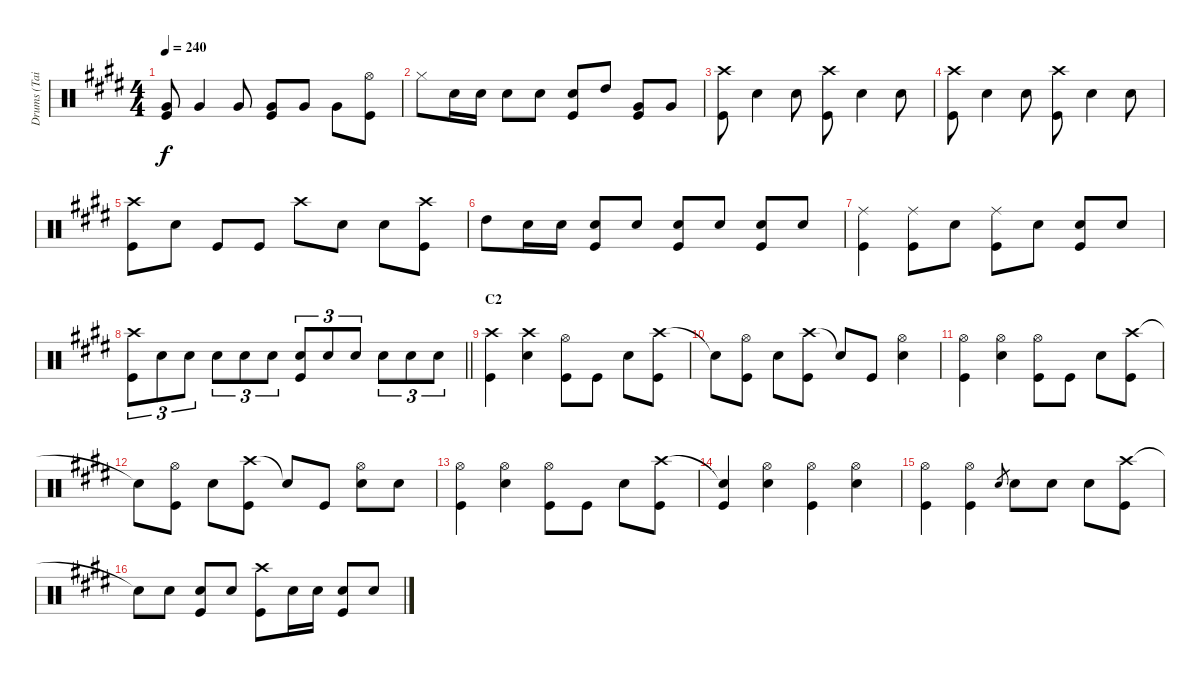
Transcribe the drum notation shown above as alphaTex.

\track ("Drums (Tainaka Ritsu)" "Drums (Tai") {instrument percussion}
\staff {score}
\articulation defaults
\ts (4 4)
\tempo 240
\clef neutral
\ks e
("Very Low Tom (hit)" "Kick (hit)").8{dy f} "Very Low Tom (hit)".4 "Very Low Tom (hit)".8 ("Very Low Tom (hit)" "Kick (hit)").8 "Very Low Tom (hit)".8 "Very Low Tom (hit)".8 ("Hi-Hat (open)" "Kick (hit)").8 |
"Hi-Hat (closed)".8 "Snare (hit) 2".16 "Snare (hit) 2".16 "Snare (hit) 2".8 "Snare (hit) 2".8 ("Snare (hit) 2" "Kick (hit)").8 "High Tom (hit)".8 ("Very Low Tom (hit)" "Kick (hit)").8 "Very Low Tom (hit)".8 |
("Crash high (hit)" "Kick (hit)").8 "Snare (hit) 2".4 "Snare (hit) 2".8 ("Crash high (hit)" "Kick (hit)").8 "Snare (hit) 2".4 "Snare (hit) 2".8 |
("Crash high (hit)" "Kick (hit)").8 "Snare (hit) 2".4 "Snare (hit) 2".8 ("Crash high (hit)" "Kick (hit)").8 "Snare (hit) 2".4 "Snare (hit) 2".8 |
("Crash high (hit)" "Kick (hit)").8 "Snare (hit) 2".8 "Kick (hit)".8 "Kick (hit)".8 "Crash high (hit)".8 "Snare (hit) 2".8 "Snare (hit) 2".8 ("Crash high (hit)" "Kick (hit)").8 |
"High Tom (hit)".8 "Snare (hit) 2".16 "Snare (hit) 2".16 ("Snare (hit) 2" "Kick (hit)").8 "Snare (hit) 2".8 ("Snare (hit) 2" "Kick (hit)").8 "Snare (hit) 2".8 ("Snare (hit) 2" "Kick (hit)").8 "Snare (hit) 2".8 |
("Ride (middle)" "Kick (hit)").4 ("Ride (middle)" "Kick (hit)").8 "Snare (hit) 2".8 ("Ride (middle)" "Kick (hit)").8 "Snare (hit) 2".8 ("Snare (hit) 2" "Kick (hit)").8 "Snare (hit) 2".8 |
\barLineRight lightlight
("Crash high (hit)" "Kick (hit)").8{tu (3 2)} "Snare (hit) 2".8{tu (3 2)} "Snare (hit) 2".8{tu (3 2)} "Snare (hit) 2".8{tu (3 2)} "Snare (hit) 2".8{tu (3 2)} "Snare (hit) 2".8{tu (3 2)} ("Snare (hit) 2" "Kick (hit)").8{tu (3 2)} "Snare (hit) 2".8{tu (3 2)} "Snare (hit) 2".8{tu (3 2)} "Snare (hit) 2".8{tu (3 2)} "Snare (hit) 2".8{tu (3 2)} "Snare (hit) 2".8{tu (3 2)} |
\section ("" "C2")
("Crash high (hit)" "Kick (hit)").4 ("Crash high (hit)" "Snare (hit) 2").4 ("Hi-Hat (open)" "Kick (hit)").8 "Kick (hit)".8 "Snare (hit) 2".8 ("Crash high (hit)" "Kick (hit)").8 |
"Snare (hit)"{t}.8 ("Hi-Hat (open)" "Kick (hit)").8 "Snare (hit) 2".8 ("Crash high (hit)" "Kick (hit)").8 "Snare (hit)"{t}.8 "Kick (hit)".8 ("Hi-Hat (open)" "Snare (hit) 2").4 |
("Hi-Hat (open)" "Kick (hit)").4 ("Hi-Hat (open)" "Snare (hit) 2").4 ("Hi-Hat (open)" "Kick (hit)").8 "Kick (hit)".8 "Snare (hit) 2".8 ("Crash high (hit)" "Kick (hit)").8 |
"Snare (hit)"{t}.8 ("Hi-Hat (open)" "Kick (hit)").8 "Snare (hit) 2".8 ("Crash high (hit)" "Kick (hit)").8 "Snare (hit)"{t}.8 "Kick (hit)".8 ("Hi-Hat (open)" "Snare (hit) 2").8 "Snare (hit) 2".8 |
("Hi-Hat (open)" "Kick (hit)").4 ("Hi-Hat (open)" "Snare (hit) 2").4 ("Hi-Hat (open)" "Kick (hit)").8 "Kick (hit)".8 "Snare (hit) 2".8 ("Crash high (hit)" "Kick (hit)").8 |
("Snare (hit)"{t} "Kick (hit)").4 ("Hi-Hat (open)" "Snare (hit) 2").4 ("Hi-Hat (open)" "Kick (hit)").4 ("Hi-Hat (open)" "Snare (hit) 2").4 |
("Hi-Hat (open)" "Kick (hit)").4 ("Hi-Hat (open)" "Kick (hit)").4 "Snare (hit) 2".8{gr} "Snare (hit) 2".8 "Snare (hit) 2".8 "Snare (hit) 2".8 ("Crash high (hit)" "Kick (hit)").8 |
"Snare (hit)"{t}.8 "Snare (hit) 2".8 ("Snare (hit) 2" "Kick (hit)").8 "Snare (hit) 2".8 ("Crash high (hit)" "Kick (hit)").8 "Snare (hit) 2".16 "Snare (hit) 2".16 ("Snare (hit) 2" "Kick (hit)").8 "Snare (hit) 2".8
